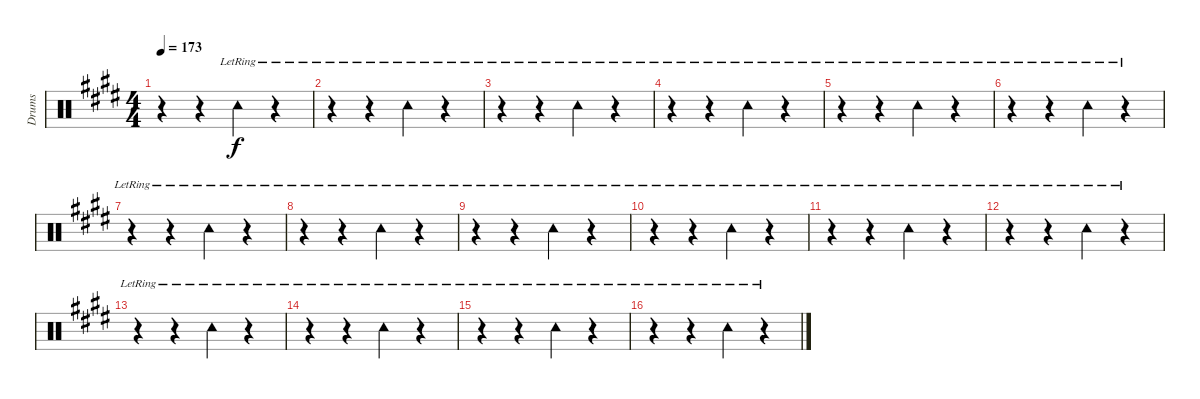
\track ("Drums" "Drums") {instrument percussion}
\staff {score}
\articulation defaults
\ts (4 4)
\tempo 173
\clef neutral
\ks e
r.4{dy f} r.4 "Tambourine (hit)"{lr}.4 r.4 |
r.4 r.4 "Tambourine (hit)"{lr}.4 r.4 |
r.4 r.4 "Tambourine (hit)"{lr}.4 r.4 |
r.4 r.4 "Tambourine (hit)"{lr}.4 r.4 |
r.4 r.4 "Tambourine (hit)"{lr}.4 r.4 |
r.4 r.4 "Tambourine (hit)"{lr}.4 r.4 |
r.4 r.4 "Tambourine (hit)"{lr}.4 r.4 |
r.4 r.4 "Tambourine (hit)"{lr}.4 r.4 |
r.4 r.4 "Tambourine (hit)"{lr}.4 r.4 |
r.4 r.4 "Tambourine (hit)"{lr}.4 r.4 |
r.4 r.4 "Tambourine (hit)"{lr}.4 r.4 |
r.4 r.4 "Tambourine (hit)"{lr}.4 r.4 |
r.4 r.4 "Tambourine (hit)"{lr}.4 r.4 |
r.4 r.4 "Tambourine (hit)"{lr}.4 r.4 |
r.4 r.4 "Tambourine (hit)"{lr}.4 r.4 |
r.4 r.4 "Tambourine (hit)"{lr}.4 r.4
